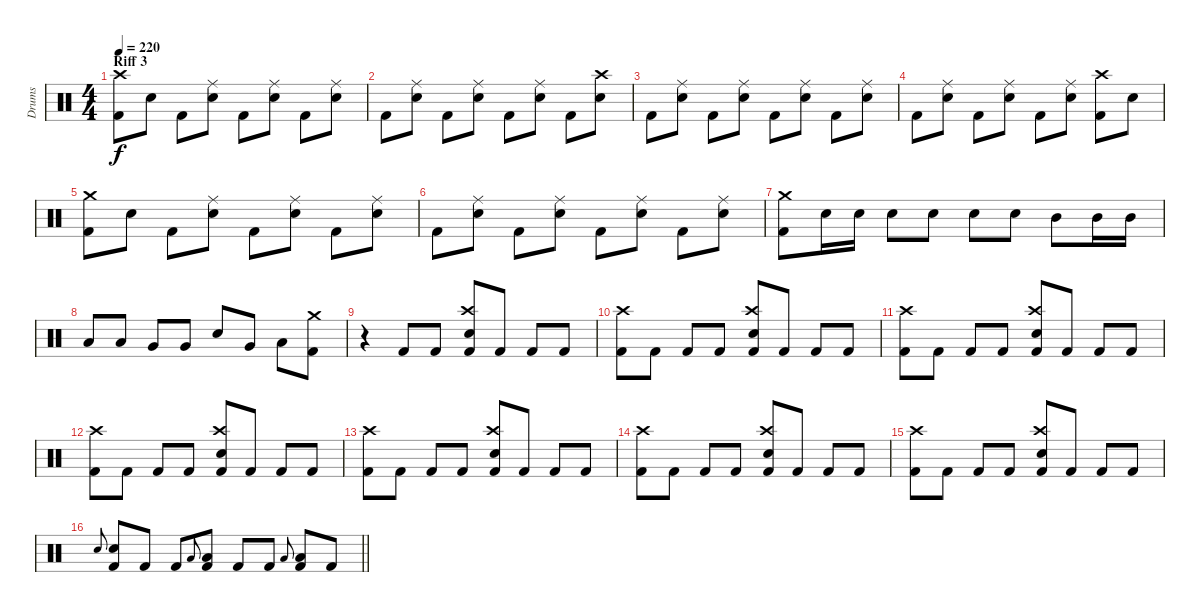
\track ("Drums" "Drums") {instrument percussion}
\staff {score}
\articulation defaults
\ts (4 4)
\section ("" "Riff 3")
\tempo 220
\clef neutral
\ks c
("Kick (hit) 2" "Crash high (hit)").8{dy f} "Electric Snare (hit)".8 "Kick (hit) 2".8 ("Electric Snare (hit)" "Ride (middle)").8 "Kick (hit) 2".8 ("Electric Snare (hit)" "Ride (middle)").8 "Kick (hit) 2".8 ("Electric Snare (hit)" "Ride (middle)").8 |
"Kick (hit) 2".8 ("Electric Snare (hit)" "Ride (middle)").8 "Kick (hit) 2".8 ("Electric Snare (hit)" "Ride (middle)").8 "Kick (hit) 2".8 ("Electric Snare (hit)" "Ride (middle)").8 "Kick (hit) 2".8 ("Electric Snare (hit)" "Crash high (hit)").8 |
"Kick (hit) 2".8 ("Electric Snare (hit)" "Ride (middle)").8 "Kick (hit) 2".8 ("Electric Snare (hit)" "Ride (middle)").8 "Kick (hit) 2".8 ("Electric Snare (hit)" "Ride (middle)").8 "Kick (hit) 2".8 ("Electric Snare (hit)" "Ride (middle)").8 |
"Kick (hit) 2".8 ("Electric Snare (hit)" "Ride (middle)").8 "Kick (hit) 2".8 ("Electric Snare (hit)" "Ride (middle)").8 "Kick (hit) 2".8 ("Electric Snare (hit)" "Ride (middle)").8 ("Kick (hit) 2" "Crash high (hit)").8 "Electric Snare (hit)".8 |
("Kick (hit) 2" "Crash medium (hit)").8 "Electric Snare (hit)".8 "Kick (hit) 2".8 ("Electric Snare (hit)" "Ride (middle)").8 "Kick (hit) 2".8 ("Electric Snare (hit)" "Ride (middle)").8 "Kick (hit) 2".8 ("Electric Snare (hit)" "Ride (middle)").8 |
"Kick (hit) 2".8 ("Electric Snare (hit)" "Ride (middle)").8 "Kick (hit) 2".8 ("Electric Snare (hit)" "Ride (middle)").8 "Kick (hit) 2".8 ("Electric Snare (hit)" "Ride (middle)").8 "Kick (hit) 2".8 ("Electric Snare (hit)" "Ride (middle)").8 |
("Crash medium (hit)" "Kick (hit) 2").8 "Electric Snare (hit)".16 "Electric Snare (hit)".16 "Electric Snare (hit)".8 "Electric Snare (hit)".8 "Electric Snare (hit)".8 "Electric Snare (hit)".8 "Mid Tom (hit)".8 "Mid Tom (hit)".16 "Mid Tom (hit)".16 |
"Low Tom (hit)".8 "Low Tom (hit)".8 "Very Low Tom (hit)".8 "Very Low Tom (hit)".8 "Electric Snare (hit)".8 "Very Low Tom (hit)".8 "Low Floor Tom (hit)".8 ("Kick (hit) 2" "Crash medium (hit)").8 |
r.4 "Kick (hit) 2".8 "Kick (hit) 2".8 ("Kick (hit) 2" "Electric Snare (hit)" "Crash high (hit)").8 "Kick (hit) 2".8 "Kick (hit) 2".8 "Kick (hit) 2".8 |
("Kick (hit) 2" "Crash high (hit)").8 "Kick (hit) 2".8 "Kick (hit) 2".8 "Kick (hit) 2".8 ("Kick (hit) 2" "Electric Snare (hit)" "Crash high (hit)").8 "Kick (hit) 2".8 "Kick (hit) 2".8 "Kick (hit) 2".8 |
("Kick (hit) 2" "Crash high (hit)").8 "Kick (hit) 2".8 "Kick (hit) 2".8 "Kick (hit) 2".8 ("Kick (hit) 2" "Electric Snare (hit)" "Crash high (hit)").8 "Kick (hit) 2".8 "Kick (hit) 2".8 "Kick (hit) 2".8 |
("Kick (hit) 2" "Crash high (hit)").8 "Kick (hit) 2".8 "Kick (hit) 2".8 "Kick (hit) 2".8 ("Kick (hit) 2" "Electric Snare (hit)" "Crash high (hit)").8 "Kick (hit) 2".8 "Kick (hit) 2".8 "Kick (hit) 2".8 |
("Kick (hit) 2" "Crash high (hit)").8 "Kick (hit) 2".8 "Kick (hit) 2".8 "Kick (hit) 2".8 ("Kick (hit) 2" "Electric Snare (hit)" "Crash high (hit)").8 "Kick (hit) 2".8 "Kick (hit) 2".8 "Kick (hit) 2".8 |
("Kick (hit) 2" "Crash high (hit)").8 "Kick (hit) 2".8 "Kick (hit) 2".8 "Kick (hit) 2".8 ("Kick (hit) 2" "Electric Snare (hit)" "Crash high (hit)").8 "Kick (hit) 2".8 "Kick (hit) 2".8 "Kick (hit) 2".8 |
("Kick (hit) 2" "Crash high (hit)").8 "Kick (hit) 2".8 "Kick (hit) 2".8 "Kick (hit) 2".8 ("Kick (hit) 2" "Electric Snare (hit)" "Crash high (hit)").8 "Kick (hit) 2".8 "Kick (hit) 2".8 "Kick (hit) 2".8 |
\barLineRight lightlight "Electric Snare (hit)".8{gr onbeat}
("Kick (hit) 2" "Electric Snare (hit)").8 "Kick (hit) 2".8 "Kick (hit) 2".8 "Low Tom (hit)".8{gr onbeat} ("Kick (hit) 2" "Low Tom (hit)").8 "Kick (hit) 2".8 "Kick (hit) 2".8 "Low Floor Tom (hit)".8{gr onbeat} ("Kick (hit) 2" "Low Floor Tom (hit)").8 "Kick (hit) 2".8
